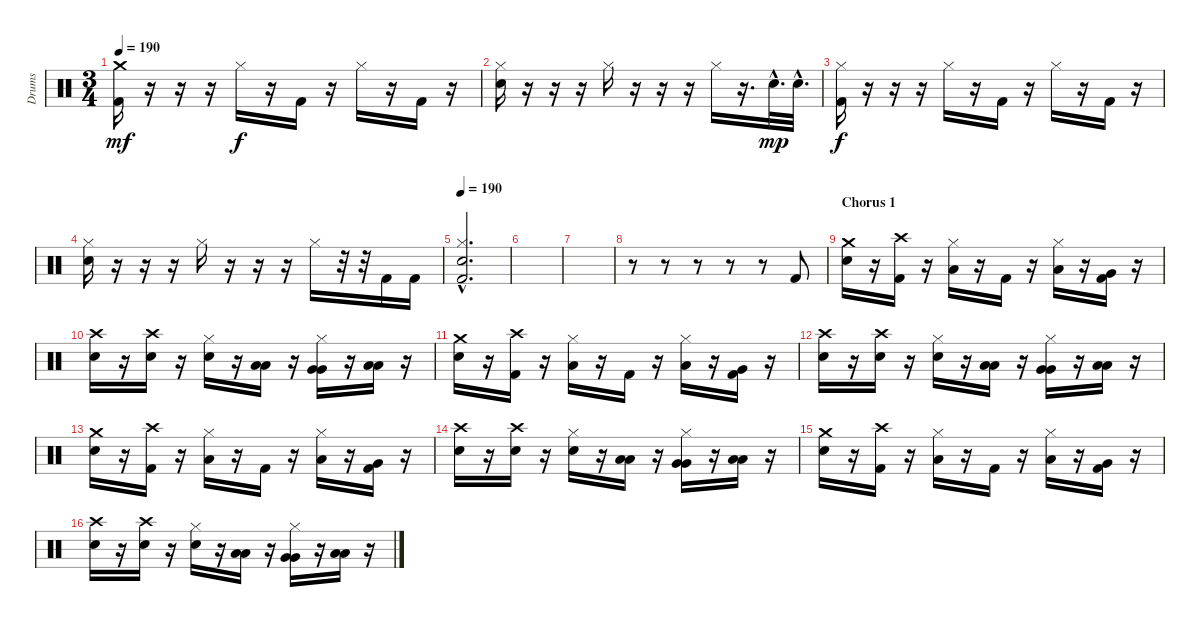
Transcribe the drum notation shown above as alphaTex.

\track ("Drums" "Drums") {instrument percussion}
\staff {score}
\articulation defaults
\ts (3 4)
\tempo 190
\clef neutral
\ks c
("Crash medium (hit)" "Kick (hit) 2").16{dy mf} r.16 r.16 r.16 "Hi-Hat (closed)".16{dy f} r.16 "Kick (hit) 2".16 r.16 "Hi-Hat (closed)".16 r.16 "Kick (hit) 2".16 r.16 |
("Hi-Hat (closed)" "Snare (hit) 2").16 r.16 r.16 r.16 "Hi-Hat (closed)".16 r.16 r.16 r.16 "Hi-Hat (closed)".16 r.16{d} "Snare (hit) 2"{hac}.32{d dy mp} "Snare (hit) 2"{hac}.32{d} |
("Hi-Hat (closed)" "Kick (hit) 2").16{dy f} r.16 r.16 r.16 "Hi-Hat (closed)".16 r.16 "Kick (hit) 2".16 r.16 "Hi-Hat (closed)".16 r.16 "Kick (hit) 2".16 r.16 |
("Hi-Hat (closed)" "Snare (hit) 2").16 r.16 r.16 r.16 "Hi-Hat (closed)".16 r.16 r.16 r.16 "Hi-Hat (closed)".16 r.32 r.32 "Kick (hit) 2".16 "Kick (hit) 2".16 |
\tempo 190
("Hi-Hat (closed)"{hac} "Snare (hit) 2"{hac} "Kick (hit) 2"{hac}).2{d} |
|
|
r.8 r.8 r.8 r.8 r.8 "Kick (hit) 2".8 |
\section ("" "Chorus 1")
("Crash medium (hit)" "Snare (hit) 2").16 r.16 ("Crash high (hit)" "Kick (hit) 2").16 r.16 ("Hi-Hat (closed)" "Low Floor Tom (hit)").16 r.16 "Kick (hit) 2".16 r.16 ("Hi-Hat (closed)" "Low Tom (hit)").16 r.16 ("Very Low Tom (hit)" "Kick (hit) 2").16 r.16 |
("Crash high (hit)" "Snare (hit) 2").16 r.16 ("Crash high (hit)" "Snare (hit) 2").16 r.16 ("Hi-Hat (closed)" "Snare (hit) 2").16 r.16 ("Low Tom (hit)" "Low Tom (hit)").16 r.16 ("Hi-Hat (closed)" "Very Low Tom (hit)" "Very Low Tom (hit)").16 r.16 ("Low Floor Tom (hit)" "Low Floor Tom (hit)").16 r.16 |
("Crash medium (hit)" "Snare (hit) 2").16 r.16 ("Crash high (hit)" "Kick (hit) 2").16 r.16 ("Hi-Hat (closed)" "Low Floor Tom (hit)").16 r.16 "Kick (hit) 2".16 r.16 ("Hi-Hat (closed)" "Low Tom (hit)").16 r.16 ("Very Low Tom (hit)" "Kick (hit) 2").16 r.16 |
("Crash high (hit)" "Snare (hit) 2").16 r.16 ("Crash high (hit)" "Snare (hit) 2").16 r.16 ("Hi-Hat (closed)" "Snare (hit) 2").16 r.16 ("Low Tom (hit)" "Low Tom (hit)").16 r.16 ("Hi-Hat (closed)" "Very Low Tom (hit)" "Very Low Tom (hit)").16 r.16 ("Low Floor Tom (hit)" "Low Floor Tom (hit)").16 r.16 |
("Crash medium (hit)" "Snare (hit) 2").16 r.16 ("Crash high (hit)" "Kick (hit) 2").16 r.16 ("Hi-Hat (closed)" "Low Floor Tom (hit)").16 r.16 "Kick (hit) 2".16 r.16 ("Hi-Hat (closed)" "Low Tom (hit)").16 r.16 ("Very Low Tom (hit)" "Kick (hit) 2").16 r.16 |
("Crash high (hit)" "Snare (hit) 2").16 r.16 ("Crash high (hit)" "Snare (hit) 2").16 r.16 ("Hi-Hat (closed)" "Snare (hit) 2").16 r.16 ("Low Tom (hit)" "Low Tom (hit)").16 r.16 ("Hi-Hat (closed)" "Very Low Tom (hit)" "Very Low Tom (hit)").16 r.16 ("Low Floor Tom (hit)" "Low Floor Tom (hit)").16 r.16 |
("Crash medium (hit)" "Snare (hit) 2").16 r.16 ("Crash high (hit)" "Kick (hit) 2").16 r.16 ("Hi-Hat (closed)" "Low Floor Tom (hit)").16 r.16 "Kick (hit) 2".16 r.16 ("Hi-Hat (closed)" "Low Tom (hit)").16 r.16 ("Very Low Tom (hit)" "Kick (hit) 2").16 r.16 |
("Crash high (hit)" "Snare (hit) 2").16 r.16 ("Crash high (hit)" "Snare (hit) 2").16 r.16 ("Hi-Hat (closed)" "Snare (hit) 2").16 r.16 ("Low Tom (hit)" "Low Tom (hit)").16 r.16 ("Hi-Hat (closed)" "Very Low Tom (hit)" "Very Low Tom (hit)").16 r.16 ("Low Floor Tom (hit)" "Low Floor Tom (hit)").16 r.16
